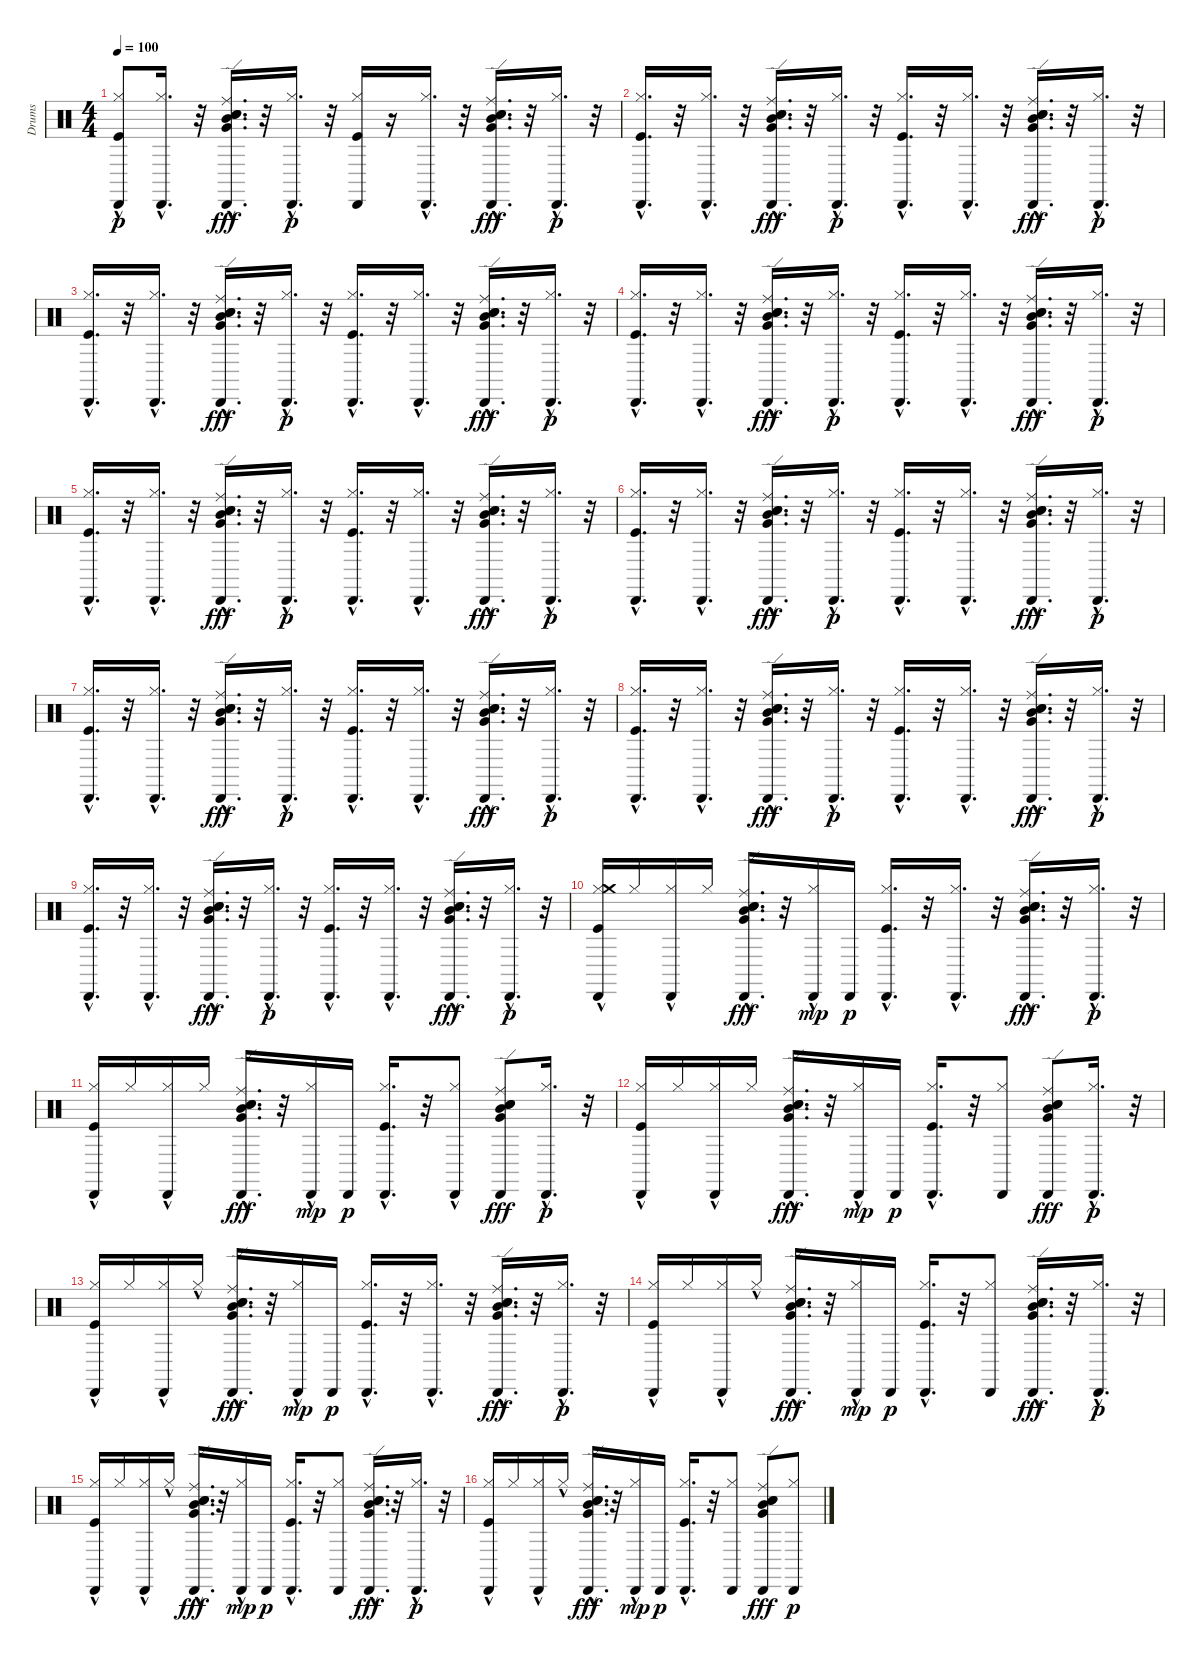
\track ("Drums" "Drums") {instrument percussion}
\staff {score}
\articulation defaults
\ts (4 4)
\tempo 100
\clef neutral
\ks c
("Hi-Hat (closed)" "Kick (hit)"{hac} "Cabasa (hit)").8{dy p} ("Hi-Hat (closed)"{hac} "Cabasa (hit)"{hac}).16{d} r.32 ("Electric Snare (hit)"{hac} "Snare (hit) 2"{hac} "Ride (edge)"{hac} "Mid Tom (hit)"{hac} "Cabasa (hit)"{hac} "Very Low Tom (hit)"{hac}).16{d dy fff} r.32 ("Hi-Hat (closed)"{hac} "Cabasa (hit)"{hac}).16{d dy p} r.32 ("Hi-Hat (closed)" "Kick (hit)" "Cabasa (hit)").16 r.16 ("Hi-Hat (closed)"{hac} "Cabasa (hit)"{hac}).16{d} r.32 ("Electric Snare (hit)"{hac} "Snare (hit) 2"{hac} "Ride (edge)"{hac} "Mid Tom (hit)"{hac} "Cabasa (hit)"{hac} "Very Low Tom (hit)"{hac}).16{d dy fff} r.32 ("Hi-Hat (closed)"{hac} "Cabasa (hit)"{hac}).16{d dy p} r.32 |
("Hi-Hat (closed)"{hac} "Kick (hit)"{hac} "Cabasa (hit)"{hac}).16{d} r.32 ("Hi-Hat (closed)"{hac} "Cabasa (hit)"{hac}).16{d} r.32 ("Electric Snare (hit)"{hac} "Snare (hit) 2"{hac} "Ride (edge)"{hac} "Mid Tom (hit)"{hac} "Cabasa (hit)"{hac} "Very Low Tom (hit)"{hac}).16{d dy fff} r.32 ("Hi-Hat (closed)"{hac} "Cabasa (hit)"{hac}).16{d dy p} r.32 ("Hi-Hat (closed)"{hac} "Kick (hit)"{hac} "Cabasa (hit)"{hac}).16{d} r.32 ("Hi-Hat (closed)"{hac} "Cabasa (hit)"{hac}).16{d} r.32 ("Electric Snare (hit)"{hac} "Snare (hit) 2"{hac} "Ride (edge)"{hac} "Mid Tom (hit)"{hac} "Cabasa (hit)"{hac} "Very Low Tom (hit)"{hac}).16{d dy fff} r.32 ("Hi-Hat (closed)"{hac} "Cabasa (hit)"{hac}).16{d dy p} r.32 |
("Hi-Hat (closed)"{hac} "Kick (hit)"{hac} "Cabasa (hit)"{hac}).16{d} r.32 ("Hi-Hat (closed)"{hac} "Cabasa (hit)"{hac}).16{d} r.32 ("Electric Snare (hit)"{hac} "Snare (hit) 2"{hac} "Ride (edge)"{hac} "Mid Tom (hit)"{hac} "Cabasa (hit)"{hac} "Very Low Tom (hit)"{hac}).16{d dy fff} r.32 ("Hi-Hat (closed)"{hac} "Cabasa (hit)"{hac}).16{d dy p} r.32 ("Hi-Hat (closed)"{hac} "Kick (hit)"{hac} "Cabasa (hit)"{hac}).16{d} r.32 ("Hi-Hat (closed)"{hac} "Cabasa (hit)"{hac}).16{d} r.32 ("Electric Snare (hit)"{hac} "Snare (hit) 2"{hac} "Ride (edge)"{hac} "Mid Tom (hit)"{hac} "Cabasa (hit)"{hac} "Very Low Tom (hit)"{hac}).16{d dy fff} r.32 ("Hi-Hat (closed)"{hac} "Cabasa (hit)"{hac}).16{d dy p} r.32 |
("Hi-Hat (closed)"{hac} "Kick (hit)"{hac} "Cabasa (hit)"{hac}).16{d} r.32 ("Hi-Hat (closed)"{hac} "Cabasa (hit)"{hac}).16{d} r.32 ("Electric Snare (hit)"{hac} "Snare (hit) 2"{hac} "Ride (edge)"{hac} "Mid Tom (hit)"{hac} "Cabasa (hit)"{hac} "Very Low Tom (hit)"{hac}).16{d dy fff} r.32 ("Hi-Hat (closed)"{hac} "Cabasa (hit)"{hac}).16{d dy p} r.32 ("Hi-Hat (closed)"{hac} "Kick (hit)"{hac} "Cabasa (hit)"{hac}).16{d} r.32 ("Hi-Hat (closed)"{hac} "Cabasa (hit)"{hac}).16{d} r.32 ("Electric Snare (hit)"{hac} "Snare (hit) 2"{hac} "Ride (edge)"{hac} "Mid Tom (hit)"{hac} "Cabasa (hit)"{hac} "Very Low Tom (hit)"{hac}).16{d dy fff} r.32 ("Hi-Hat (closed)"{hac} "Cabasa (hit)"{hac}).16{d dy p} r.32 |
("Hi-Hat (closed)"{hac} "Kick (hit)"{hac} "Cabasa (hit)"{hac}).16{d} r.32 ("Hi-Hat (closed)"{hac} "Cabasa (hit)"{hac}).16{d} r.32 ("Electric Snare (hit)"{hac} "Snare (hit) 2"{hac} "Ride (edge)"{hac} "Mid Tom (hit)"{hac} "Cabasa (hit)"{hac} "Very Low Tom (hit)"{hac}).16{d dy fff} r.32 ("Hi-Hat (closed)"{hac} "Cabasa (hit)"{hac}).16{d dy p} r.32 ("Hi-Hat (closed)"{hac} "Kick (hit)"{hac} "Cabasa (hit)"{hac}).16{d} r.32 ("Hi-Hat (closed)"{hac} "Cabasa (hit)"{hac}).16{d} r.32 ("Electric Snare (hit)"{hac} "Snare (hit) 2"{hac} "Ride (edge)"{hac} "Mid Tom (hit)"{hac} "Cabasa (hit)"{hac} "Very Low Tom (hit)"{hac}).16{d dy fff} r.32 ("Hi-Hat (closed)"{hac} "Cabasa (hit)"{hac}).16{d dy p} r.32 |
("Hi-Hat (closed)"{hac} "Kick (hit)"{hac} "Cabasa (hit)"{hac}).16{d} r.32 ("Hi-Hat (closed)"{hac} "Cabasa (hit)"{hac}).16{d} r.32 ("Electric Snare (hit)"{hac} "Snare (hit) 2"{hac} "Ride (edge)"{hac} "Mid Tom (hit)"{hac} "Cabasa (hit)"{hac} "Very Low Tom (hit)"{hac}).16{d dy fff} r.32 ("Hi-Hat (closed)"{hac} "Cabasa (hit)"{hac}).16{d dy p} r.32 ("Hi-Hat (closed)"{hac} "Kick (hit)"{hac} "Cabasa (hit)"{hac}).16{d} r.32 ("Hi-Hat (closed)"{hac} "Cabasa (hit)"{hac}).16{d} r.32 ("Electric Snare (hit)"{hac} "Snare (hit) 2"{hac} "Ride (edge)"{hac} "Mid Tom (hit)"{hac} "Cabasa (hit)"{hac} "Very Low Tom (hit)"{hac}).16{d dy fff} r.32 ("Hi-Hat (closed)"{hac} "Cabasa (hit)"{hac}).16{d dy p} r.32 |
("Hi-Hat (closed)"{hac} "Kick (hit)"{hac} "Cabasa (hit)"{hac}).16{d} r.32 ("Hi-Hat (closed)"{hac} "Cabasa (hit)"{hac}).16{d} r.32 ("Electric Snare (hit)"{hac} "Snare (hit) 2"{hac} "Ride (edge)"{hac} "Mid Tom (hit)"{hac} "Cabasa (hit)"{hac} "Very Low Tom (hit)"{hac}).16{d dy fff} r.32 ("Hi-Hat (closed)"{hac} "Cabasa (hit)"{hac}).16{d dy p} r.32 ("Hi-Hat (closed)"{hac} "Kick (hit)"{hac} "Cabasa (hit)"{hac}).16{d} r.32 ("Hi-Hat (closed)"{hac} "Cabasa (hit)"{hac}).16{d} r.32 ("Electric Snare (hit)"{hac} "Snare (hit) 2"{hac} "Ride (edge)"{hac} "Mid Tom (hit)"{hac} "Cabasa (hit)"{hac} "Very Low Tom (hit)"{hac}).16{d dy fff} r.32 ("Hi-Hat (closed)"{hac} "Cabasa (hit)"{hac}).16{d dy p} r.32 |
("Hi-Hat (closed)"{hac} "Kick (hit)"{hac} "Cabasa (hit)"{hac}).16{d} r.32 ("Hi-Hat (closed)"{hac} "Cabasa (hit)"{hac}).16{d} r.32 ("Electric Snare (hit)"{hac} "Snare (hit) 2"{hac} "Ride (edge)"{hac} "Mid Tom (hit)"{hac} "Cabasa (hit)"{hac} "Very Low Tom (hit)"{hac}).16{d dy fff} r.32 ("Hi-Hat (closed)"{hac} "Cabasa (hit)"{hac}).16{d dy p} r.32 ("Hi-Hat (closed)"{hac} "Kick (hit)"{hac} "Cabasa (hit)"{hac}).16{d} r.32 ("Hi-Hat (closed)"{hac} "Cabasa (hit)"{hac}).16{d} r.32 ("Electric Snare (hit)"{hac} "Snare (hit) 2"{hac} "Ride (edge)"{hac} "Mid Tom (hit)"{hac} "Cabasa (hit)"{hac} "Very Low Tom (hit)"{hac}).16{d dy fff} r.32 ("Hi-Hat (closed)"{hac} "Cabasa (hit)"{hac}).16{d dy p} r.32 |
("Hi-Hat (closed)"{hac} "Kick (hit)"{hac} "Cabasa (hit)"{hac}).16{d} r.32 ("Hi-Hat (closed)"{hac} "Cabasa (hit)"{hac}).16{d} r.32 ("Electric Snare (hit)"{hac} "Snare (hit) 2"{hac} "Ride (edge)"{hac} "Mid Tom (hit)"{hac} "Cabasa (hit)"{hac} "Very Low Tom (hit)"{hac}).16{d dy fff} r.32 ("Hi-Hat (closed)"{hac} "Cabasa (hit)"{hac}).16{d dy p} r.32 ("Hi-Hat (closed)"{hac} "Kick (hit)"{hac} "Cabasa (hit)"{hac}).16{d} r.32 ("Hi-Hat (closed)"{hac} "Cabasa (hit)"{hac}).16{d} r.32 ("Electric Snare (hit)"{hac} "Snare (hit) 2"{hac} "Ride (edge)"{hac} "Mid Tom (hit)"{hac} "Cabasa (hit)"{hac} "Very Low Tom (hit)"{hac}).16{d dy fff} r.32 ("Hi-Hat (closed)"{hac} "Cabasa (hit)"{hac}).16{d dy p} r.32 |
("Hi-Hat (closed)" "Kick (hit)"{hac} "Cabasa (hit)"{hac} "Crash medium (hit)").16 "Hi-Hat (closed)".16 ("Hi-Hat (closed)" "Cabasa (hit)"{hac}).16 "Hi-Hat (closed)".16 ("Electric Snare (hit)"{hac} "Snare (hit) 2"{hac} "Ride (edge)"{hac} "Mid Tom (hit)"{hac} "Cabasa (hit)"{hac} "Very Low Tom (hit)"{hac}).16{d dy fff} r.32 ("Cabasa (hit)" "Hi-Hat (closed)"{hac}).16{dy mp} "Cabasa (hit)".16{dy p} ("Hi-Hat (closed)"{hac} "Kick (hit)"{hac} "Cabasa (hit)"{hac}).16{d} r.32 ("Hi-Hat (closed)"{hac} "Cabasa (hit)"{hac}).16{d} r.32 ("Electric Snare (hit)"{hac} "Snare (hit) 2"{hac} "Ride (edge)"{hac} "Mid Tom (hit)"{hac} "Cabasa (hit)"{hac} "Very Low Tom (hit)"{hac}).16{d dy fff} r.32 ("Hi-Hat (closed)"{hac} "Cabasa (hit)"{hac}).16{d dy p} r.32 |
("Hi-Hat (closed)" "Kick (hit)"{hac} "Cabasa (hit)"{hac}).16 "Hi-Hat (closed)".16 ("Hi-Hat (closed)" "Cabasa (hit)"{hac}).16 "Hi-Hat (closed)".16 ("Electric Snare (hit)"{hac} "Snare (hit) 2"{hac} "Ride (edge)"{hac} "Mid Tom (hit)"{hac} "Cabasa (hit)"{hac} "Very Low Tom (hit)"{hac}).16{d dy fff} r.32 ("Cabasa (hit)" "Hi-Hat (closed)"{hac}).16{dy mp} "Cabasa (hit)".16{dy p} ("Hi-Hat (closed)"{hac} "Kick (hit)"{hac} "Cabasa (hit)"{hac}).16{d} r.32 ("Hi-Hat (closed)"{hac} "Cabasa (hit)").8 ("Electric Snare (hit)" "Snare (hit) 2" "Ride (edge)" "Mid Tom (hit)" "Cabasa (hit)" "Very Low Tom (hit)").8{dy fff} ("Hi-Hat (closed)"{hac} "Cabasa (hit)"{hac}).16{d dy p} r.32 |
("Hi-Hat (closed)" "Kick (hit)"{hac} "Cabasa (hit)"{hac}).16 "Hi-Hat (closed)".16 ("Hi-Hat (closed)" "Cabasa (hit)"{hac}).16 "Hi-Hat (closed)".16 ("Electric Snare (hit)"{hac} "Snare (hit) 2"{hac} "Ride (edge)"{hac} "Mid Tom (hit)"{hac} "Cabasa (hit)"{hac} "Very Low Tom (hit)"{hac}).16{d dy fff} r.32 ("Cabasa (hit)" "Hi-Hat (closed)"{hac}).16{dy mp} "Cabasa (hit)".16{dy p} ("Hi-Hat (closed)"{hac} "Kick (hit)"{hac} "Cabasa (hit)"{hac}).16{d} r.32 ("Hi-Hat (closed)" "Cabasa (hit)").8 ("Electric Snare (hit)" "Snare (hit) 2" "Ride (edge)" "Mid Tom (hit)" "Cabasa (hit)" "Very Low Tom (hit)").8{dy fff} ("Hi-Hat (closed)"{hac} "Cabasa (hit)"{hac}).16{d dy p} r.32 |
("Hi-Hat (closed)" "Kick (hit)"{hac} "Cabasa (hit)"{hac}).16 "Hi-Hat (closed)".16 ("Hi-Hat (closed)" "Cabasa (hit)"{hac}).16 "Hi-Hat (closed)"{hac}.16 ("Electric Snare (hit)"{hac} "Snare (hit) 2"{hac} "Ride (edge)"{hac} "Mid Tom (hit)"{hac} "Cabasa (hit)"{hac} "Very Low Tom (hit)"{hac}).16{d dy fff} r.32 ("Cabasa (hit)" "Hi-Hat (closed)"{hac}).16{dy mp} "Cabasa (hit)".16{dy p} ("Hi-Hat (closed)"{hac} "Kick (hit)"{hac} "Cabasa (hit)"{hac}).16{d} r.32 ("Hi-Hat (closed)"{hac} "Cabasa (hit)"{hac}).16{d} r.32 ("Electric Snare (hit)"{hac} "Snare (hit) 2"{hac} "Ride (edge)"{hac} "Mid Tom (hit)"{hac} "Cabasa (hit)"{hac} "Very Low Tom (hit)"{hac}).16{d dy fff} r.32 ("Hi-Hat (closed)"{hac} "Cabasa (hit)"{hac}).16{d dy p} r.32 |
("Hi-Hat (closed)" "Kick (hit)"{hac} "Cabasa (hit)"{hac}).16 "Hi-Hat (closed)".16 ("Hi-Hat (closed)" "Cabasa (hit)"{hac}).16 "Hi-Hat (closed)"{hac}.16 ("Electric Snare (hit)"{hac} "Snare (hit) 2"{hac} "Ride (edge)"{hac} "Mid Tom (hit)"{hac} "Cabasa (hit)"{hac} "Very Low Tom (hit)"{hac}).16{d dy fff} r.32 ("Cabasa (hit)" "Hi-Hat (closed)"{hac}).16{dy mp} "Cabasa (hit)".16{dy p} ("Hi-Hat (closed)"{hac} "Kick (hit)"{hac} "Cabasa (hit)"{hac}).16{d} r.32 ("Hi-Hat (closed)" "Cabasa (hit)").8 ("Electric Snare (hit)"{hac} "Snare (hit) 2"{hac} "Ride (edge)"{hac} "Mid Tom (hit)"{hac} "Cabasa (hit)"{hac} "Very Low Tom (hit)"{hac}).16{d dy fff} r.32 ("Hi-Hat (closed)"{hac} "Cabasa (hit)"{hac}).16{d dy p} r.32 |
("Hi-Hat (closed)" "Kick (hit)"{hac} "Cabasa (hit)"{hac}).16 "Hi-Hat (closed)".16 ("Hi-Hat (closed)" "Cabasa (hit)"{hac}).16 "Hi-Hat (closed)"{hac}.16 ("Electric Snare (hit)"{hac} "Snare (hit) 2"{hac} "Ride (edge)"{hac} "Mid Tom (hit)"{hac} "Cabasa (hit)"{hac} "Very Low Tom (hit)"{hac}).16{d dy fff} r.32 ("Cabasa (hit)" "Hi-Hat (closed)"{hac}).16{dy mp} "Cabasa (hit)".16{dy p} ("Hi-Hat (closed)"{hac} "Kick (hit)"{hac} "Cabasa (hit)"{hac}).16{d} r.32 ("Hi-Hat (closed)" "Cabasa (hit)").8 ("Electric Snare (hit)"{hac} "Snare (hit) 2"{hac} "Ride (edge)"{hac} "Mid Tom (hit)"{hac} "Cabasa (hit)"{hac} "Very Low Tom (hit)"{hac}).16{d dy fff} r.32 ("Hi-Hat (closed)"{hac} "Cabasa (hit)"{hac}).16{d dy p} r.32 |
("Hi-Hat (closed)" "Kick (hit)"{hac} "Cabasa (hit)"{hac}).16 "Hi-Hat (closed)".16 ("Hi-Hat (closed)" "Cabasa (hit)"{hac}).16 "Hi-Hat (closed)"{hac}.16 ("Electric Snare (hit)"{hac} "Snare (hit) 2"{hac} "Ride (edge)"{hac} "Mid Tom (hit)"{hac} "Cabasa (hit)"{hac} "Very Low Tom (hit)"{hac}).16{d dy fff} r.32 ("Cabasa (hit)" "Hi-Hat (closed)"{hac}).16{dy mp} "Cabasa (hit)".16{dy p} ("Hi-Hat (closed)"{hac} "Kick (hit)"{hac} "Cabasa (hit)"{hac}).16{d} r.32 ("Hi-Hat (closed)" "Cabasa (hit)").8 ("Electric Snare (hit)" "Snare (hit) 2" "Ride (edge)" "Mid Tom (hit)" "Cabasa (hit)" "Very Low Tom (hit)").8{dy fff} ("Hi-Hat (closed)" "Cabasa (hit)").8{dy p}
